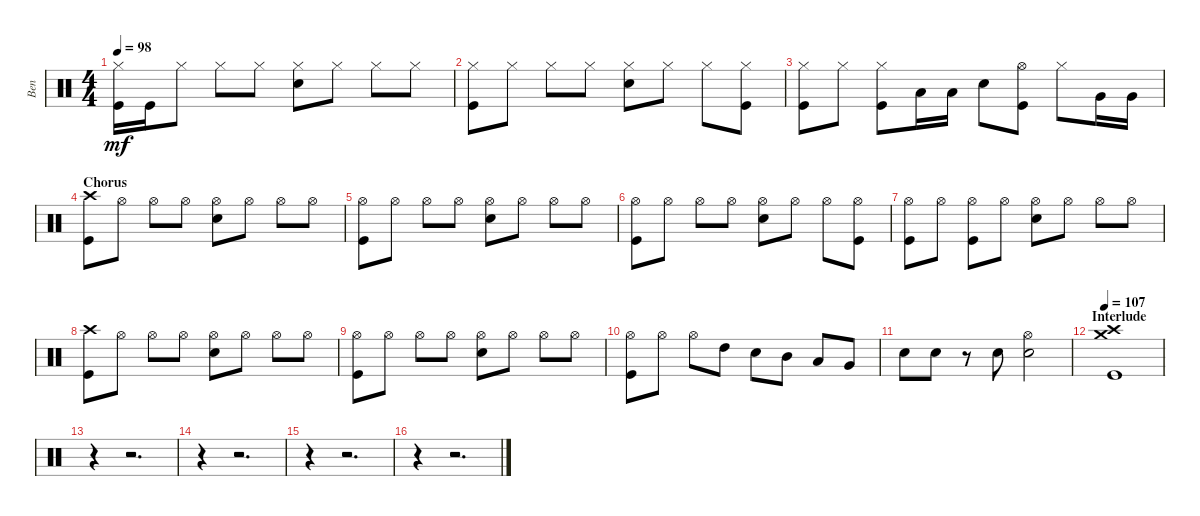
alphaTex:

\track ("Ben" "Ben") {instrument percussion}
\staff {score}
\articulation defaults
\ts (4 4)
\tempo 98
\clef neutral
\ks c
("Kick (hit)" "Hi-Hat (closed)").16{dy mf} "Kick (hit)".16 "Hi-Hat (closed)".8 "Hi-Hat (closed)".8 "Hi-Hat (closed)".8 ("Hi-Hat (closed)" "Snare (hit) 2").8 "Hi-Hat (closed)".8 "Hi-Hat (closed)".8 "Hi-Hat (closed)".8 |
("Kick (hit)" "Hi-Hat (closed)").8 "Hi-Hat (closed)".8 "Hi-Hat (closed)".8 "Hi-Hat (closed)".8 ("Hi-Hat (closed)" "Snare (hit) 2").8 "Hi-Hat (closed)".8 "Hi-Hat (closed)".8 ("Hi-Hat (closed)" "Kick (hit)").8 |
("Hi-Hat (closed)" "Kick (hit)").8 "Hi-Hat (closed)".8 ("Hi-Hat (closed)" "Kick (hit)").8 "Low Tom (hit)".16 "Low Tom (hit)".16 "Snare (hit) 2".8 ("Kick (hit)" "Hi-Hat (open)").8 "Hi-Hat (closed)".8 "Very Low Tom (hit)".16 "Very Low Tom (hit)".16 |
\section ("" "Chorus")
("Crash high (hit)" "Kick (hit)").8 "Hi-Hat (open)".8 "Hi-Hat (open)".8 "Hi-Hat (open)".8 ("Hi-Hat (open)" "Snare (hit) 2").8 "Hi-Hat (open)".8 "Hi-Hat (open)".8 "Hi-Hat (open)".8 |
("Kick (hit)" "Hi-Hat (open)").8 "Hi-Hat (open)".8 "Hi-Hat (open)".8 "Hi-Hat (open)".8 ("Hi-Hat (open)" "Snare (hit) 2").8 "Hi-Hat (open)".8 "Hi-Hat (open)".8 "Hi-Hat (open)".8 |
("Kick (hit)" "Hi-Hat (open)").8 "Hi-Hat (open)".8 "Hi-Hat (open)".8 "Hi-Hat (open)".8 ("Hi-Hat (open)" "Snare (hit) 2").8 "Hi-Hat (open)".8 "Hi-Hat (open)".8 ("Hi-Hat (open)" "Kick (hit)").8 |
("Kick (hit)" "Hi-Hat (open)").8 "Hi-Hat (open)".8 ("Hi-Hat (open)" "Kick (hit)").8 "Hi-Hat (open)".8 ("Hi-Hat (open)" "Snare (hit) 2").8 "Hi-Hat (open)".8 "Hi-Hat (open)".8 "Hi-Hat (open)".8 |
("Crash high (hit)" "Kick (hit)").8 "Hi-Hat (open)".8 "Hi-Hat (open)".8 "Hi-Hat (open)".8 ("Hi-Hat (open)" "Snare (hit) 2").8 "Hi-Hat (open)".8 "Hi-Hat (open)".8 "Hi-Hat (open)".8 |
("Kick (hit)" "Hi-Hat (open)").8 "Hi-Hat (open)".8 "Hi-Hat (open)".8 "Hi-Hat (open)".8 ("Hi-Hat (open)" "Snare (hit) 2").8 "Hi-Hat (open)".8 "Hi-Hat (open)".8 "Hi-Hat (open)".8 |
("Kick (hit)" "Hi-Hat (open)").8 "Hi-Hat (open)".8 "Hi-Hat (open)".8 "High Tom (hit)".8 "Snare (hit) 2".8 "Mid Tom (hit)".8 "Low Tom (hit)".8 "Very Low Tom (hit)".8 |
"Snare (hit) 2".8 "Snare (hit) 2".8 r.8 "Snare (hit) 2".8 ("Snare (hit) 2" "Hi-Hat (open)").2 |
\section ("" "Interlude")
\tempo 107
("Kick (hit)" "Crash high (hit)" "Crash medium (hit)").1 |
r.4 r.2{d} |
r.4 r.2{d} |
r.4 r.2{d} |
r.4 r.2{d}
